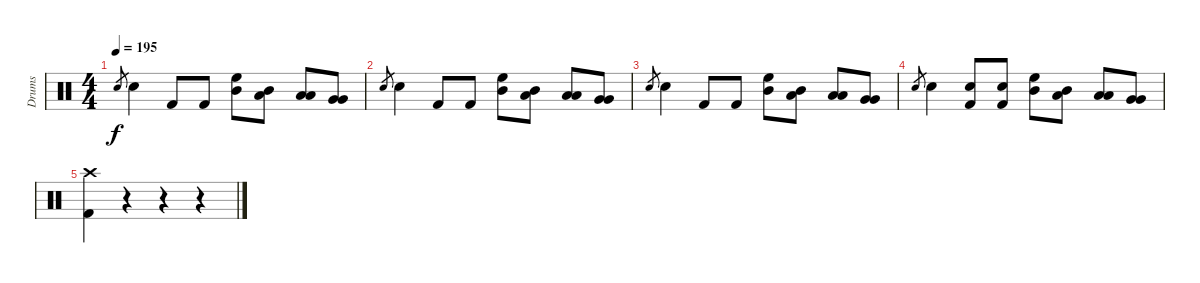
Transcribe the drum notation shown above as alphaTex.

\track ("Drums" "Drums") {instrument percussion}
\staff {score}
\articulation defaults
\ts (4 4)
\tempo 195
\clef neutral
\ks c "Snare (hit) 2".8{gr dy f} "Snare (hit) 2".4 "Kick (hit) 2".8 "Kick (hit) 2".8
("Mid Tom (hit)" "High Floor Tom (hit)").8 ("Low Tom (hit)" "Mid Tom (hit)").8 ("Low Tom (hit)" "Low Tom (hit)").8 ("Very Low Tom (hit)" "Very Low Tom (hit)").8 |
"Snare (hit) 2".8{gr} "Snare (hit) 2".4 "Kick (hit) 2".8 "Kick (hit) 2".8 ("Mid Tom (hit)" "High Floor Tom (hit)").8 ("Low Tom (hit)" "Mid Tom (hit)").8 ("Low Tom (hit)" "Low Tom (hit)").8 ("Very Low Tom (hit)" "Very Low Tom (hit)").8 |
"Snare (hit) 2".8{gr} "Snare (hit) 2".4 "Kick (hit) 2".8 "Kick (hit) 2".8 ("Mid Tom (hit)" "High Floor Tom (hit)").8 ("Low Tom (hit)" "Mid Tom (hit)").8 ("Low Tom (hit)" "Low Tom (hit)").8 ("Very Low Tom (hit)" "Very Low Tom (hit)").8 |
"Snare (hit) 2".8{gr} "Snare (hit) 2".4 ("Snare (hit) 2" "Kick (hit) 2").8 ("Snare (hit) 2" "Kick (hit) 2").8 ("Mid Tom (hit)" "High Floor Tom (hit)").8 ("Low Tom (hit)" "Mid Tom (hit)").8 ("Low Tom (hit)" "Low Tom (hit)").8 ("Very Low Tom (hit)" "Very Low Tom (hit)").8 |
("Crash high (hit)" "Kick (hit) 2").4 r.4 r.4 r.4
